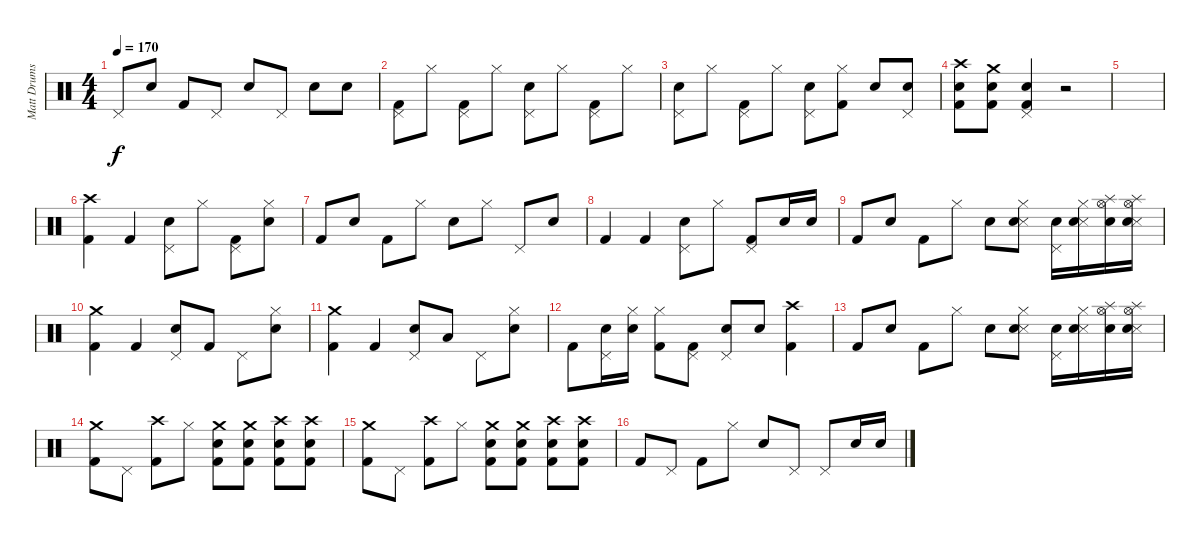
\track ("Matt Drums" "Matt Drums") {instrument percussion}
\staff {score}
\articulation defaults
\ts (4 4)
\tempo 170
\clef neutral
\ks c "Pedal Hi-Hat (hit)".8{dy f} "Electric Snare (hit)".8 "Kick (hit) 2".8 "Pedal Hi-Hat (hit)".8 "Electric Snare (hit)".8 "Pedal Hi-Hat (hit)".8 "Electric Snare (hit)".8 "Electric Snare (hit)".8
|
("Pedal Hi-Hat (hit)" "Kick (hit) 2").8 "Hi-Hat (closed)".8 ("Pedal Hi-Hat (hit)" "Kick (hit) 2").8 "Hi-Hat (closed)".8 ("Pedal Hi-Hat (hit)" "Electric Snare (hit)").8 "Hi-Hat (closed)".8 ("Pedal Hi-Hat (hit)" "Kick (hit) 2").8 "Hi-Hat (closed)".8 |
("Pedal Hi-Hat (hit)" "Electric Snare (hit)").8 "Hi-Hat (closed)".8 ("Pedal Hi-Hat (hit)" "Kick (hit) 2").8 "Hi-Hat (closed)".8 ("Pedal Hi-Hat (hit)" "Electric Snare (hit)").8 ("Hi-Hat (closed)" "Kick (hit) 2").8 "Electric Snare (hit)".8 ("Pedal Hi-Hat (hit)" "Electric Snare (hit)").8 |
("Crash high (hit)" "Electric Snare (hit)" "Kick (hit) 2").8 ("Crash medium (hit)" "Electric Snare (hit)" "Kick (hit) 2").8 ("Pedal Hi-Hat (hit)" "Electric Snare (hit)" "Kick (hit) 2").4 r.2 |
|
("Crash high (hit)" "Kick (hit) 2").4 "Kick (hit) 2".4 ("Pedal Hi-Hat (hit)" "Electric Snare (hit)").8 "Hi-Hat (closed)".8 ("Pedal Hi-Hat (hit)" "Kick (hit) 2").8 ("Hi-Hat (closed)" "Electric Snare (hit)").8 |
"Kick (hit) 2".8 "Electric Snare (hit)".8 "Kick (hit) 2".8 "Hi-Hat (closed)".8 "Electric Snare (hit)".8 "Hi-Hat (closed)".8 "Pedal Hi-Hat (hit)".8 "Electric Snare (hit)".8 |
"Kick (hit) 2".4 "Kick (hit) 2".4 ("Pedal Hi-Hat (hit)" "Electric Snare (hit)").8 "Hi-Hat (closed)".8 ("Pedal Hi-Hat (hit)" "Kick (hit) 2").8 "Electric Snare (hit)".16 "Electric Snare (hit)".16 |
"Kick (hit) 2".8 "Electric Snare (hit)".8 "Kick (hit) 2".8 "Hi-Hat (closed)".8 "Electric Snare (hit)".8 ("Hi-Hat (closed)" "Snare (side stick) 3" "Electric Snare (hit)").8 ("Pedal Hi-Hat (hit)" "Electric Snare (hit)").16 ("Hi-Hat (closed)" "Snare (side stick) 3" "Electric Snare (hit)").16 ("Splash (hit)" "Electric Snare (hit)" "Hi-Hat (open)").16 ("Splash (hit)" "Snare (side stick) 3" "Electric Snare (hit)" "Hi-Hat (open)").16 |
("Crash medium (hit)" "Kick (hit) 2").4 "Kick (hit) 2".4 ("Pedal Hi-Hat (hit)" "Electric Snare (hit)").8 "Kick (hit) 2".8 "Pedal Hi-Hat (hit)".8 ("Hi-Hat (closed)" "Electric Snare (hit)").8 |
("Crash medium (hit)" "Kick (hit) 2").4 "Kick (hit) 2".4 ("Pedal Hi-Hat (hit)" "Electric Snare (hit)").8 "Low Tom (hit)".8 "Pedal Hi-Hat (hit)".8 ("Hi-Hat (closed)" "Electric Snare (hit)").8 |
"Kick (hit) 2".8 ("Pedal Hi-Hat (hit)" "Electric Snare (hit)").16 ("Hi-Hat (closed)" "Electric Snare (hit)").16 ("Hi-Hat (closed)" "Kick (hit) 2").8 ("Pedal Hi-Hat (hit)" "Kick (hit) 2").8 ("Pedal Hi-Hat (hit)" "Electric Snare (hit)").8 "Electric Snare (hit)".8 ("Crash high (hit)" "Kick (hit) 2").4 |
"Kick (hit) 2".8 "Electric Snare (hit)".8 "Kick (hit) 2".8 "Hi-Hat (closed)".8 "Electric Snare (hit)".8 ("Hi-Hat (closed)" "Snare (side stick) 3" "Electric Snare (hit)").8 ("Pedal Hi-Hat (hit)" "Electric Snare (hit)").16 ("Hi-Hat (closed)" "Snare (side stick) 3" "Electric Snare (hit)").16 ("Splash (hit)" "Electric Snare (hit)" "Hi-Hat (open)").16 ("Splash (hit)" "Snare (side stick) 3" "Electric Snare (hit)" "Hi-Hat (open)").16 |
("Crash medium (hit)" "Kick (hit) 2").8 "Pedal Hi-Hat (hit)".8 ("Crash high (hit)" "Kick (hit) 2").8 "Hi-Hat (closed)".8 ("Crash medium (hit)" "Electric Snare (hit)" "Kick (hit) 2").8 ("Crash medium (hit)" "Electric Snare (hit)" "Kick (hit) 2").8 ("Crash high (hit)" "Electric Snare (hit)" "Kick (hit) 2").8 ("Crash high (hit)" "Electric Snare (hit)" "Kick (hit) 2").8 |
("Crash medium (hit)" "Kick (hit) 2").8 "Pedal Hi-Hat (hit)".8 ("Crash high (hit)" "Kick (hit) 2").8 "Hi-Hat (closed)".8 ("Crash medium (hit)" "Electric Snare (hit)" "Kick (hit) 2").8 ("Crash medium (hit)" "Electric Snare (hit)" "Kick (hit) 2").8 ("Crash high (hit)" "Electric Snare (hit)" "Kick (hit) 2").8 ("Crash high (hit)" "Electric Snare (hit)" "Kick (hit) 2").8 |
"Kick (hit) 2".8 "Pedal Hi-Hat (hit)".8 "Kick (hit) 2".8 "Hi-Hat (closed)".8 "Electric Snare (hit)".8 "Pedal Hi-Hat (hit)".8 "Pedal Hi-Hat (hit)".8 "Electric Snare (hit)".16 "Electric Snare (hit)".16
